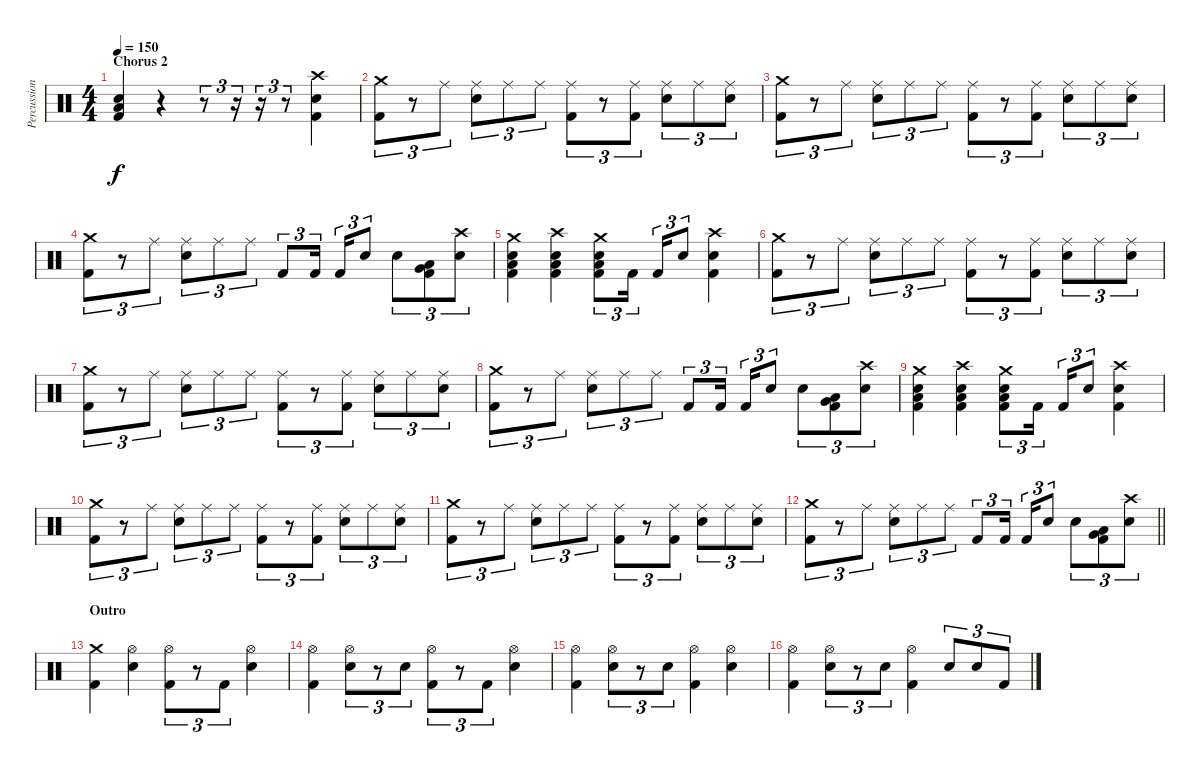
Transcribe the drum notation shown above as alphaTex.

\track ("Percussion" "Percussion") {instrument percussion}
\staff {score}
\articulation defaults
\ts (4 4)
\section ("" "Chorus 2")
\tempo 150
\clef neutral
\ks c
("Electric Snare (hit)" "Low Floor Tom (hit)" "Kick (hit) 2").4{dy f} r.4 r.8{tu (3 2)} r.16{tu (3 2)} r.16{tu (3 2)} r.8{tu (3 2)} ("Crash high (hit)" "Electric Snare (hit)" "Kick (hit) 2").4 |
("Crash medium (hit)" "Kick (hit) 2").8{tu (3 2)} r.8{tu (3 2)} "Ride (middle)".8{tu (3 2)} ("Ride (middle)" "Electric Snare (hit)").8{tu (3 2)} "Ride (middle)".8{tu (3 2)} "Ride (middle)".8{tu (3 2)} ("Ride (middle)" "Kick (hit) 2").8{tu (3 2)} r.8{tu (3 2)} ("Ride (middle)" "Kick (hit) 2").8{tu (3 2)} ("Ride (middle)" "Electric Snare (hit)").8{tu (3 2)} "Ride (middle)".8{tu (3 2)} ("Ride (middle)" "Electric Snare (hit)").8{tu (3 2)} |
("Crash medium (hit)" "Kick (hit) 2").8{tu (3 2)} r.8{tu (3 2)} "Ride (middle)".8{tu (3 2)} ("Ride (middle)" "Electric Snare (hit)").8{tu (3 2)} "Ride (middle)".8{tu (3 2)} "Ride (middle)".8{tu (3 2)} ("Ride (middle)" "Kick (hit) 2").8{tu (3 2)} r.8{tu (3 2)} ("Ride (middle)" "Kick (hit) 2").8{tu (3 2)} ("Ride (middle)" "Electric Snare (hit)").8{tu (3 2)} "Ride (middle)".8{tu (3 2)} ("Ride (middle)" "Electric Snare (hit)").8{tu (3 2)} |
("Crash medium (hit)" "Kick (hit) 2").8{tu (3 2)} r.8{tu (3 2)} "Ride (middle)".8{tu (3 2)} ("Ride (middle)" "Electric Snare (hit)").8{tu (3 2)} "Ride (middle)".8{tu (3 2)} "Ride (middle)".8{tu (3 2)} "Kick (hit) 2".8{tu (3 2)} "Kick (hit) 2".16{tu (3 2) beam splitsecondary} "Kick (hit) 2".16{tu (3 2)} "Electric Snare (hit)".8{tu (3 2)} "Electric Snare (hit)".8{tu (3 2)} ("Very Low Tom (hit)" "Low Floor Tom (hit)" "Kick (hit) 2").8{tu (3 2)} ("Crash high (hit)" "Electric Snare (hit)").8{tu (3 2)} |
("Crash medium (hit)" "Electric Snare (hit)" "Low Floor Tom (hit)" "Kick (hit) 2").4 ("Crash high (hit)" "Electric Snare (hit)" "Low Floor Tom (hit)" "Kick (hit) 2").4 ("Crash medium (hit)" "Electric Snare (hit)" "Low Floor Tom (hit)" "Kick (hit) 2").8{tu (3 2)} "Kick (hit) 2".16{tu (3 2) beam splitsecondary} "Kick (hit) 2".16{tu (3 2)} "Electric Snare (hit)".8{tu (3 2)} ("Crash high (hit)" "Electric Snare (hit)" "Kick (hit) 2").4 |
("Crash medium (hit)" "Kick (hit) 2").8{tu (3 2)} r.8{tu (3 2)} "Ride (middle)".8{tu (3 2)} ("Ride (middle)" "Electric Snare (hit)").8{tu (3 2)} "Ride (middle)".8{tu (3 2)} "Ride (middle)".8{tu (3 2)} ("Ride (middle)" "Kick (hit) 2").8{tu (3 2)} r.8{tu (3 2)} ("Ride (middle)" "Kick (hit) 2").8{tu (3 2)} ("Ride (middle)" "Electric Snare (hit)").8{tu (3 2)} "Ride (middle)".8{tu (3 2)} ("Ride (middle)" "Electric Snare (hit)").8{tu (3 2)} |
("Crash medium (hit)" "Kick (hit) 2").8{tu (3 2)} r.8{tu (3 2)} "Ride (middle)".8{tu (3 2)} ("Ride (middle)" "Electric Snare (hit)").8{tu (3 2)} "Ride (middle)".8{tu (3 2)} "Ride (middle)".8{tu (3 2)} ("Ride (middle)" "Kick (hit) 2").8{tu (3 2)} r.8{tu (3 2)} ("Ride (middle)" "Kick (hit) 2").8{tu (3 2)} ("Ride (middle)" "Electric Snare (hit)").8{tu (3 2)} "Ride (middle)".8{tu (3 2)} ("Ride (middle)" "Electric Snare (hit)").8{tu (3 2)} |
("Crash medium (hit)" "Kick (hit) 2").8{tu (3 2)} r.8{tu (3 2)} "Ride (middle)".8{tu (3 2)} ("Ride (middle)" "Electric Snare (hit)").8{tu (3 2)} "Ride (middle)".8{tu (3 2)} "Ride (middle)".8{tu (3 2)} "Kick (hit) 2".8{tu (3 2)} "Kick (hit) 2".16{tu (3 2) beam splitsecondary} "Kick (hit) 2".16{tu (3 2)} "Electric Snare (hit)".8{tu (3 2)} "Electric Snare (hit)".8{tu (3 2)} ("Very Low Tom (hit)" "Low Floor Tom (hit)" "Kick (hit) 2").8{tu (3 2)} ("Crash high (hit)" "Electric Snare (hit)").8{tu (3 2)} |
("Crash medium (hit)" "Electric Snare (hit)" "Low Floor Tom (hit)" "Kick (hit) 2").4 ("Crash high (hit)" "Electric Snare (hit)" "Low Floor Tom (hit)" "Kick (hit) 2").4 ("Crash medium (hit)" "Electric Snare (hit)" "Low Floor Tom (hit)" "Kick (hit) 2").8{tu (3 2)} "Kick (hit) 2".16{tu (3 2) beam splitsecondary} "Kick (hit) 2".16{tu (3 2)} "Electric Snare (hit)".8{tu (3 2)} ("Crash high (hit)" "Electric Snare (hit)" "Kick (hit) 2").4 |
("Crash medium (hit)" "Kick (hit) 2").8{tu (3 2)} r.8{tu (3 2)} "Ride (middle)".8{tu (3 2)} ("Ride (middle)" "Electric Snare (hit)").8{tu (3 2)} "Ride (middle)".8{tu (3 2)} "Ride (middle)".8{tu (3 2)} ("Ride (middle)" "Kick (hit) 2").8{tu (3 2)} r.8{tu (3 2)} ("Ride (middle)" "Kick (hit) 2").8{tu (3 2)} ("Ride (middle)" "Electric Snare (hit)").8{tu (3 2)} "Ride (middle)".8{tu (3 2)} ("Ride (middle)" "Electric Snare (hit)").8{tu (3 2)} |
("Crash medium (hit)" "Kick (hit) 2").8{tu (3 2)} r.8{tu (3 2)} "Ride (middle)".8{tu (3 2)} ("Ride (middle)" "Electric Snare (hit)").8{tu (3 2)} "Ride (middle)".8{tu (3 2)} "Ride (middle)".8{tu (3 2)} ("Ride (middle)" "Kick (hit) 2").8{tu (3 2)} r.8{tu (3 2)} ("Ride (middle)" "Kick (hit) 2").8{tu (3 2)} ("Ride (middle)" "Electric Snare (hit)").8{tu (3 2)} "Ride (middle)".8{tu (3 2)} ("Ride (middle)" "Electric Snare (hit)").8{tu (3 2)} |
\barLineRight lightlight
("Crash medium (hit)" "Kick (hit) 2").8{tu (3 2)} r.8{tu (3 2)} "Ride (middle)".8{tu (3 2)} ("Ride (middle)" "Electric Snare (hit)").8{tu (3 2)} "Ride (middle)".8{tu (3 2)} "Ride (middle)".8{tu (3 2)} "Kick (hit) 2".8{tu (3 2)} "Kick (hit) 2".16{tu (3 2) beam splitsecondary} "Kick (hit) 2".16{tu (3 2)} "Electric Snare (hit)".8{tu (3 2)} "Electric Snare (hit)".8{tu (3 2)} ("Very Low Tom (hit)" "Low Floor Tom (hit)" "Kick (hit) 2").8{tu (3 2)} ("Crash high (hit)" "Electric Snare (hit)").8{tu (3 2)} |
\section ("" "Outro")
("Crash medium (hit)" "Kick (hit) 2").4 ("Hi-Hat (open)" "Electric Snare (hit)").4 ("Hi-Hat (open)" "Kick (hit) 2").8{tu (3 2)} r.8{tu (3 2)} "Kick (hit) 2".8{tu (3 2)} ("Hi-Hat (open)" "Electric Snare (hit)").4 |
("Hi-Hat (open)" "Kick (hit) 2").4 ("Hi-Hat (open)" "Electric Snare (hit)").8{tu (3 2)} r.8{tu (3 2)} "Electric Snare (hit)".8{tu (3 2)} ("Hi-Hat (open)" "Kick (hit) 2").8{tu (3 2)} r.8{tu (3 2)} "Kick (hit) 2".8{tu (3 2)} ("Hi-Hat (open)" "Electric Snare (hit)").4 |
("Hi-Hat (open)" "Kick (hit) 2").4 ("Hi-Hat (open)" "Electric Snare (hit)").8{tu (3 2)} r.8{tu (3 2)} "Electric Snare (hit)".8{tu (3 2)} ("Hi-Hat (open)" "Kick (hit) 2").4 ("Hi-Hat (open)" "Electric Snare (hit)").4 |
("Hi-Hat (open)" "Kick (hit) 2").4 ("Hi-Hat (open)" "Electric Snare (hit)").8{tu (3 2)} r.8{tu (3 2)} "Electric Snare (hit)".8{tu (3 2)} ("Hi-Hat (open)" "Kick (hit) 2").4 "Electric Snare (hit)".8{tu (3 2)} "Electric Snare (hit)".8{tu (3 2)} "Kick (hit) 2".8{tu (3 2)}
